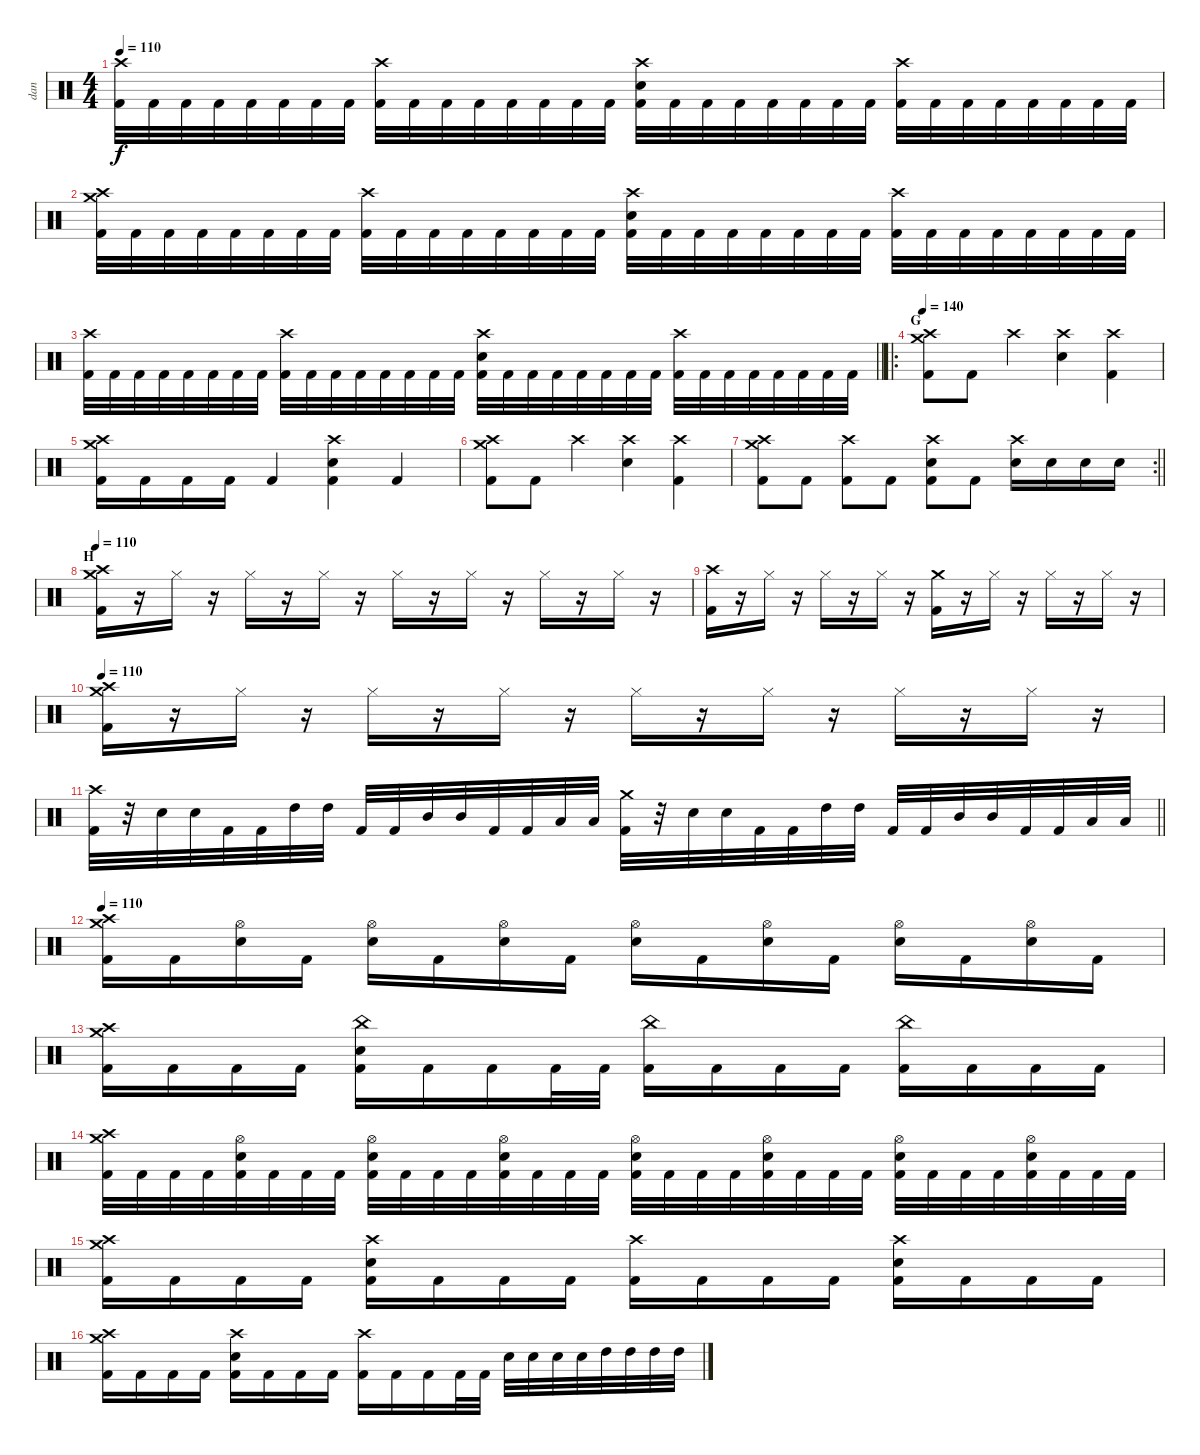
\track ("dan" "dan") {instrument percussion}
\staff {score}
\articulation defaults
\ts (4 4)
\tempo 110
\clef neutral
\ks c
("Crash high (hit)" "Kick (hit) 2").32{dy f} "Kick (hit) 2".32 "Kick (hit) 2".32 "Kick (hit) 2".32 "Kick (hit) 2".32 "Kick (hit) 2".32 "Kick (hit) 2".32 "Kick (hit) 2".32 ("Crash high (hit)" "Kick (hit) 2").32 "Kick (hit) 2".32 "Kick (hit) 2".32 "Kick (hit) 2".32 "Kick (hit) 2".32 "Kick (hit) 2".32 "Kick (hit) 2".32 "Kick (hit) 2".32 ("Crash high (hit)" "Electric Snare (hit)" "Kick (hit) 2").32 "Kick (hit) 2".32 "Kick (hit) 2".32 "Kick (hit) 2".32 "Kick (hit) 2".32 "Kick (hit) 2".32 "Kick (hit) 2".32 "Kick (hit) 2".32 ("Crash high (hit)" "Kick (hit) 2").32 "Kick (hit) 2".32 "Kick (hit) 2".32 "Kick (hit) 2".32 "Kick (hit) 2".32 "Kick (hit) 2".32 "Kick (hit) 2".32 "Kick (hit) 2".32 |
("Crash high (hit)" "Crash medium (hit)" "Kick (hit) 2").32 "Kick (hit) 2".32 "Kick (hit) 2".32 "Kick (hit) 2".32 "Kick (hit) 2".32 "Kick (hit) 2".32 "Kick (hit) 2".32 "Kick (hit) 2".32 ("Crash high (hit)" "Kick (hit) 2").32 "Kick (hit) 2".32 "Kick (hit) 2".32 "Kick (hit) 2".32 "Kick (hit) 2".32 "Kick (hit) 2".32 "Kick (hit) 2".32 "Kick (hit) 2".32 ("Crash high (hit)" "Electric Snare (hit)" "Kick (hit) 2").32 "Kick (hit) 2".32 "Kick (hit) 2".32 "Kick (hit) 2".32 "Kick (hit) 2".32 "Kick (hit) 2".32 "Kick (hit) 2".32 "Kick (hit) 2".32 ("Crash high (hit)" "Kick (hit) 2").32 "Kick (hit) 2".32 "Kick (hit) 2".32 "Kick (hit) 2".32 "Kick (hit) 2".32 "Kick (hit) 2".32 "Kick (hit) 2".32 "Kick (hit) 2".32 |
\barLineRight lightlight
("Crash high (hit)" "Kick (hit) 2").32 "Kick (hit) 2".32 "Kick (hit) 2".32 "Kick (hit) 2".32 "Kick (hit) 2".32 "Kick (hit) 2".32 "Kick (hit) 2".32 "Kick (hit) 2".32 ("Crash high (hit)" "Kick (hit) 2").32 "Kick (hit) 2".32 "Kick (hit) 2".32 "Kick (hit) 2".32 "Kick (hit) 2".32 "Kick (hit) 2".32 "Kick (hit) 2".32 "Kick (hit) 2".32 ("Crash high (hit)" "Electric Snare (hit)" "Kick (hit) 2").32 "Kick (hit) 2".32 "Kick (hit) 2".32 "Kick (hit) 2".32 "Kick (hit) 2".32 "Kick (hit) 2".32 "Kick (hit) 2".32 "Kick (hit) 2".32 ("Crash high (hit)" "Kick (hit) 2").32 "Kick (hit) 2".32 "Kick (hit) 2".32 "Kick (hit) 2".32 "Kick (hit) 2".32 "Kick (hit) 2".32 "Kick (hit) 2".32 "Kick (hit) 2".32 |
\ro
\section ("" "G")
\tempo 140
("Crash high (hit)" "Crash medium (hit)" "Kick (hit) 2").8 "Kick (hit) 2".8 "Crash high (hit)".4 ("Crash high (hit)" "Electric Snare (hit)").4 ("Crash high (hit)" "Kick (hit) 2").4 |
("Crash high (hit)" "Crash medium (hit)" "Kick (hit) 2").16 "Kick (hit) 2".16 "Kick (hit) 2".16 "Kick (hit) 2".16 "Kick (hit) 2".4 ("Crash high (hit)" "Electric Snare (hit)" "Kick (hit) 2").4 "Kick (hit) 2".4 |
("Crash high (hit)" "Crash medium (hit)" "Kick (hit) 2").8 "Kick (hit) 2".8 "Crash high (hit)".4 ("Crash high (hit)" "Electric Snare (hit)").4 ("Crash high (hit)" "Kick (hit) 2").4 |
\rc 2
\barLineRight lightlight
("Crash high (hit)" "Crash medium (hit)" "Kick (hit) 2").8 "Kick (hit) 2".8 ("Crash high (hit)" "Kick (hit) 2").8 "Kick (hit) 2".8 ("Crash high (hit)" "Electric Snare (hit)" "Kick (hit) 2").8 "Kick (hit) 2".8 ("Crash high (hit)" "Electric Snare (hit)").16 "Electric Snare (hit)".16 "Electric Snare (hit)".16 "Electric Snare (hit)".16 |
\section ("" "H")
\tempo 110
("Crash high (hit)" "Crash medium (hit)" "Kick (hit) 2").16 r.16 "Hi-Hat (closed)".16 r.16 "Hi-Hat (closed)".16 r.16 "Hi-Hat (closed)".16 r.16 "Hi-Hat (closed)".16 r.16 "Hi-Hat (closed)".16 r.16 "Hi-Hat (closed)".16 r.16 "Hi-Hat (closed)".16 r.16 |
("Crash high (hit)" "Kick (hit) 2").16 r.16 "Hi-Hat (closed)".16 r.16 "Hi-Hat (closed)".16 r.16 "Hi-Hat (closed)".16 r.16 ("Crash medium (hit)" "Kick (hit) 2").16 r.16 "Hi-Hat (closed)".16 r.16 "Hi-Hat (closed)".16 r.16 "Hi-Hat (closed)".16 r.16 |
\tempo 110
("Crash high (hit)" "Crash medium (hit)" "Kick (hit) 2").16 r.16 "Hi-Hat (closed)".16 r.16 "Hi-Hat (closed)".16 r.16 "Hi-Hat (closed)".16 r.16 "Hi-Hat (closed)".16 r.16 "Hi-Hat (closed)".16 r.16 "Hi-Hat (closed)".16 r.16 "Hi-Hat (closed)".16 r.16 |
\barLineRight lightlight
("Crash high (hit)" "Kick (hit) 2").32 r.32 "Electric Snare (hit)".32 "Electric Snare (hit)".32 "Kick (hit) 2".32 "Kick (hit) 2".32 "High Tom (hit)".32 "High Tom (hit)".32 "Kick (hit) 2".32 "Kick (hit) 2".32 "Mid Tom (hit)".32 "Mid Tom (hit)".32 "Kick (hit) 2".32 "Kick (hit) 2".32 "Low Floor Tom (hit)".32 "Low Floor Tom (hit)".32 ("Crash medium (hit)" "Kick (hit) 2").32 r.32 "Electric Snare (hit)".32 "Electric Snare (hit)".32 "Kick (hit) 2".32 "Kick (hit) 2".32 "High Tom (hit)".32 "High Tom (hit)".32 "Kick (hit) 2".32 "Kick (hit) 2".32 "Mid Tom (hit)".32 "Mid Tom (hit)".32 "Kick (hit) 2".32 "Kick (hit) 2".32 "Low Floor Tom (hit)".32 "Low Floor Tom (hit)".32 |
\tempo 110
("Crash high (hit)" "Crash medium (hit)" "Kick (hit) 2").16 "Kick (hit) 2".16 ("Hi-Hat (open)" "Electric Snare (hit)").16 "Kick (hit) 2".16 ("Hi-Hat (open)" "Electric Snare (hit)").16 "Kick (hit) 2".16 ("Hi-Hat (open)" "Electric Snare (hit)").16 "Kick (hit) 2".16 ("Hi-Hat (open)" "Electric Snare (hit)").16 "Kick (hit) 2".16 ("Hi-Hat (open)" "Electric Snare (hit)").16 "Kick (hit) 2".16 ("Hi-Hat (open)" "Electric Snare (hit)").16 "Kick (hit) 2".16 ("Hi-Hat (open)" "Electric Snare (hit)").16 "Kick (hit) 2".16 |
("Crash medium (hit)" "Crash high (hit)" "Kick (hit) 2").16 "Kick (hit) 2".16 "Kick (hit) 2".16 "Kick (hit) 2".16 ("China (hit)" "Electric Snare (hit)" "Kick (hit) 2").16 "Kick (hit) 2".16 "Kick (hit) 2".16 "Kick (hit) 2".32 "Kick (hit) 2".32 ("China (hit)" "Kick (hit) 2").16 "Kick (hit) 2".16 "Kick (hit) 2".16 "Kick (hit) 2".16 ("China (hit)" "Kick (hit) 2").16 "Kick (hit) 2".16 "Kick (hit) 2".16 "Kick (hit) 2".16 |
("Crash high (hit)" "Crash medium (hit)" "Kick (hit) 2").32 "Kick (hit) 2".32 "Kick (hit) 2".32 "Kick (hit) 2".32 ("Hi-Hat (open)" "Electric Snare (hit)" "Kick (hit) 2").32 "Kick (hit) 2".32 "Kick (hit) 2".32 "Kick (hit) 2".32 ("Hi-Hat (open)" "Electric Snare (hit)" "Kick (hit) 2").32 "Kick (hit) 2".32 "Kick (hit) 2".32 "Kick (hit) 2".32 ("Hi-Hat (open)" "Electric Snare (hit)" "Kick (hit) 2").32 "Kick (hit) 2".32 "Kick (hit) 2".32 "Kick (hit) 2".32 ("Hi-Hat (open)" "Electric Snare (hit)" "Kick (hit) 2").32 "Kick (hit) 2".32 "Kick (hit) 2".32 "Kick (hit) 2".32 ("Hi-Hat (open)" "Electric Snare (hit)" "Kick (hit) 2").32 "Kick (hit) 2".32 "Kick (hit) 2".32 "Kick (hit) 2".32 ("Hi-Hat (open)" "Electric Snare (hit)" "Kick (hit) 2").32 "Kick (hit) 2".32 "Kick (hit) 2".32 "Kick (hit) 2".32 ("Hi-Hat (open)" "Electric Snare (hit)" "Kick (hit) 2").32 "Kick (hit) 2".32 "Kick (hit) 2".32 "Kick (hit) 2".32 |
("Crash high (hit)" "Crash medium (hit)" "Kick (hit) 2").16 "Kick (hit) 2".16 "Kick (hit) 2".16 "Kick (hit) 2".16 ("Crash high (hit)" "Electric Snare (hit)" "Kick (hit) 2").16 "Kick (hit) 2".16 "Kick (hit) 2".16 "Kick (hit) 2".16 ("Crash high (hit)" "Kick (hit) 2").16 "Kick (hit) 2".16 "Kick (hit) 2".16 "Kick (hit) 2".16 ("Crash high (hit)" "Electric Snare (hit)" "Kick (hit) 2").16 "Kick (hit) 2".16 "Kick (hit) 2".16 "Kick (hit) 2".16 |
("Crash high (hit)" "Crash medium (hit)" "Kick (hit) 2").16 "Kick (hit) 2".16 "Kick (hit) 2".16 "Kick (hit) 2".16 ("Crash high (hit)" "Electric Snare (hit)" "Kick (hit) 2").16 "Kick (hit) 2".16 "Kick (hit) 2".16 "Kick (hit) 2".16 ("Crash high (hit)" "Kick (hit) 2").16 "Kick (hit) 2".16 "Kick (hit) 2".16 "Kick (hit) 2".32 "Kick (hit) 2".32 "Electric Snare (hit)".32 "Electric Snare (hit)".32 "Electric Snare (hit)".32 "Electric Snare (hit)".32 "High Tom (hit)".32 "High Tom (hit)".32 "High Tom (hit)".32 "High Tom (hit)".32
